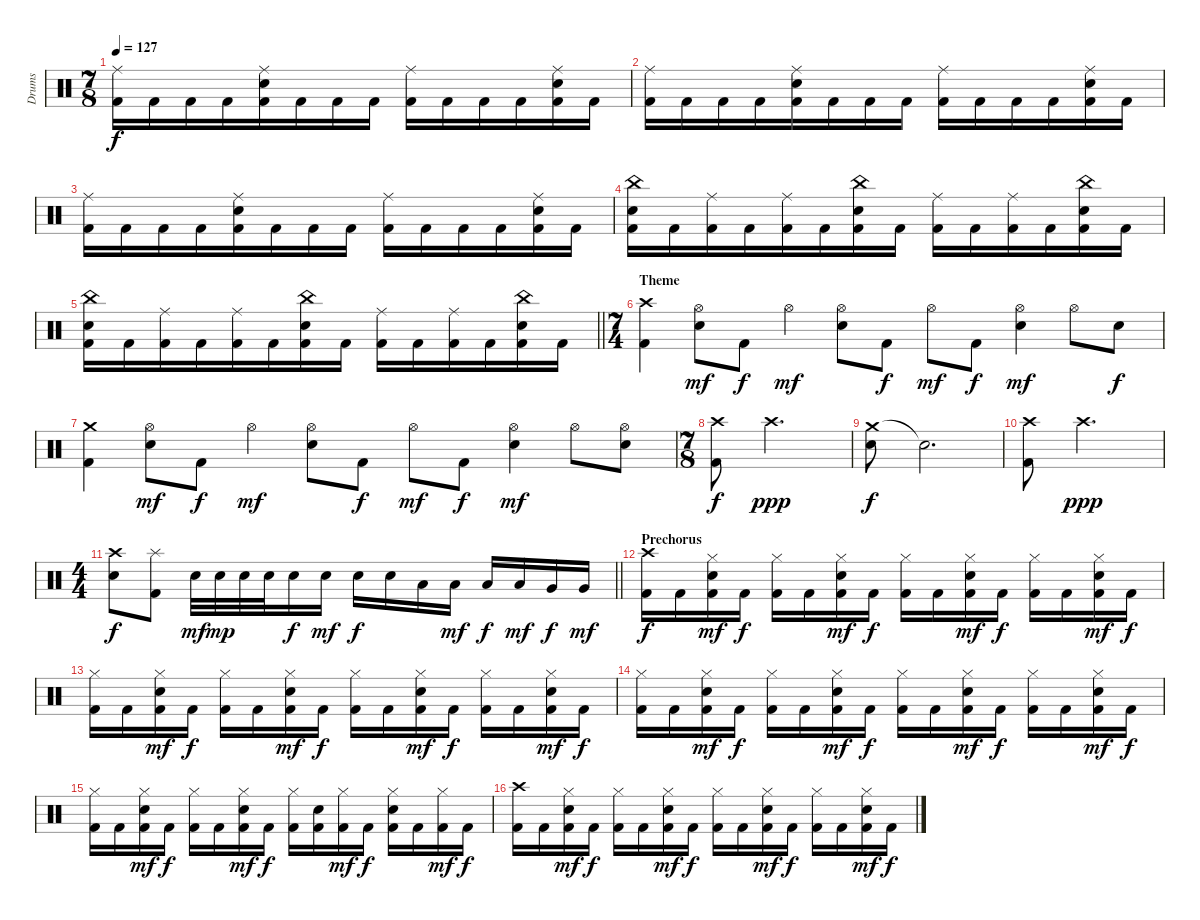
\track ("Drums" "Drums") {instrument percussion}
\staff {score}
\articulation defaults
\ts (7 8)
\tempo 127
\clef neutral
\ks c
("Kick (hit) 2" "Ride (middle)").16{dy f} "Kick (hit) 2".16 "Kick (hit) 2".16 "Kick (hit) 2".16 ("Kick (hit) 2" "Ride (middle)" "Electric Snare (hit)").16 "Kick (hit) 2".16 "Kick (hit) 2".16 "Kick (hit) 2".16 ("Kick (hit) 2" "Ride (middle)").16 "Kick (hit) 2".16 "Kick (hit) 2".16 "Kick (hit) 2".16 ("Kick (hit) 2" "Ride (middle)" "Electric Snare (hit)").16 "Kick (hit) 2".16 |
("Kick (hit) 2" "Ride (middle)").16 "Kick (hit) 2".16 "Kick (hit) 2".16 "Kick (hit) 2".16 ("Kick (hit) 2" "Ride (middle)" "Electric Snare (hit)").16 "Kick (hit) 2".16 "Kick (hit) 2".16 "Kick (hit) 2".16 ("Kick (hit) 2" "Ride (middle)").16 "Kick (hit) 2".16 "Kick (hit) 2".16 "Kick (hit) 2".16 ("Kick (hit) 2" "Ride (middle)" "Electric Snare (hit)").16 "Kick (hit) 2".16 |
("Kick (hit) 2" "Ride (middle)").16 "Kick (hit) 2".16 "Kick (hit) 2".16 "Kick (hit) 2".16 ("Kick (hit) 2" "Ride (middle)" "Electric Snare (hit)").16 "Kick (hit) 2".16 "Kick (hit) 2".16 "Kick (hit) 2".16 ("Kick (hit) 2" "Ride (middle)").16 "Kick (hit) 2".16 "Kick (hit) 2".16 "Kick (hit) 2".16 ("Kick (hit) 2" "Ride (middle)" "Electric Snare (hit)").16 "Kick (hit) 2".16 |
("Kick (hit) 2" "China (hit)" "Electric Snare (hit)").16 "Kick (hit) 2".16 ("Kick (hit) 2" "Ride (middle)").16 "Kick (hit) 2".16 ("Kick (hit) 2" "Ride (middle)").16 "Kick (hit) 2".16 ("Kick (hit) 2" "China (hit)" "Electric Snare (hit)").16 "Kick (hit) 2".16 ("Kick (hit) 2" "Ride (middle)").16 "Kick (hit) 2".16 ("Kick (hit) 2" "Ride (middle)").16 "Kick (hit) 2".16 ("Kick (hit) 2" "China (hit)" "Electric Snare (hit)").16 "Kick (hit) 2".16 |
\barLineRight lightlight
("Kick (hit) 2" "China (hit)" "Electric Snare (hit)").16 "Kick (hit) 2".16 ("Kick (hit) 2" "Ride (middle)").16 "Kick (hit) 2".16 ("Kick (hit) 2" "Ride (middle)").16 "Kick (hit) 2".16 ("Kick (hit) 2" "China (hit)" "Electric Snare (hit)").16 "Kick (hit) 2".16 ("Kick (hit) 2" "Ride (middle)").16 "Kick (hit) 2".16 ("Kick (hit) 2" "Ride (middle)").16 "Kick (hit) 2".16 ("Kick (hit) 2" "China (hit)" "Electric Snare (hit)").16 "Kick (hit) 2".16 |
\ts (7 4)
\section ("" "Theme")
("Kick (hit) 2" "Crash high (hit)").4 ("Hi-Hat (open)" "Electric Snare (hit)").8{dy mf} "Kick (hit) 2".8{dy f} "Hi-Hat (open)".4{dy mf} ("Hi-Hat (open)" "Electric Snare (hit)").8 "Kick (hit) 2".8{dy f} "Hi-Hat (open)".8{dy mf} "Kick (hit) 2".8{dy f} ("Hi-Hat (open)" "Electric Snare (hit)").4{dy mf} "Hi-Hat (open)".8 "Electric Snare (hit)".8{dy f} |
("Kick (hit) 2" "Crash medium (hit)").4 ("Hi-Hat (open)" "Electric Snare (hit)").8{dy mf} "Kick (hit) 2".8{dy f} "Hi-Hat (open)".4{dy mf} ("Hi-Hat (open)" "Electric Snare (hit)").8 "Kick (hit) 2".8{dy f} "Hi-Hat (open)".8{dy mf} "Kick (hit) 2".8{dy f} ("Hi-Hat (open)" "Electric Snare (hit)").4{dy mf} "Hi-Hat (open)".8 ("Hi-Hat (open)" "Electric Snare (hit)").8 |
\ts (7 8)
("Kick (hit) 2" "Crash high (hit)").8{dy f} "Crash high (hit)".2{d dy ppp} |
("Crash medium (hit)" "Electric Snare (hit)").8{dy f} "Snare (hit)"{t}.2{d} |
("Kick (hit) 2" "Crash high (hit)").8 "Crash high (hit)".2{d dy ppp} |
\ts (4 4)
\barLineRight lightlight
("Crash high (hit)" "Electric Snare (hit)").8{dy f} ("Kick (hit) 2" "Splash (hit)").8 "Electric Snare (hit)".32{dy mf} "Electric Snare (hit)".32{dy mp} "Electric Snare (hit)".32 "Electric Snare (hit)".32 "Electric Snare (hit)".16{dy f} "Electric Snare (hit)".16{dy mf} "Electric Snare (hit)".16{dy f} "Electric Snare (hit)".16 "Low Tom (hit)".16 "Low Tom (hit)".16{dy mf} "Low Tom (hit)".16{dy f} "Low Tom (hit)".16{dy mf} "Very Low Tom (hit)".16{dy f} "Very Low Tom (hit)".16{dy mf} |
\section ("" "Prechorus")
("Kick (hit) 2" "Crash high (hit)").16{dy f} "Kick (hit) 2".16 ("Kick (hit) 2" "Hi-Hat (closed)" "Electric Snare (hit)").16{dy mf} "Kick (hit) 2".16{dy f} ("Kick (hit) 2" "Hi-Hat (closed)").16 "Kick (hit) 2".16 ("Kick (hit) 2" "Hi-Hat (closed)" "Electric Snare (hit)").16{dy mf} "Kick (hit) 2".16{dy f} ("Kick (hit) 2" "Hi-Hat (closed)").16 "Kick (hit) 2".16 ("Kick (hit) 2" "Hi-Hat (closed)" "Electric Snare (hit)").16{dy mf} "Kick (hit) 2".16{dy f} ("Kick (hit) 2" "Hi-Hat (closed)").16 "Kick (hit) 2".16 ("Kick (hit) 2" "Hi-Hat (closed)" "Electric Snare (hit)").16{dy mf} "Kick (hit) 2".16{dy f} |
("Kick (hit) 2" "Hi-Hat (closed)").16 "Kick (hit) 2".16 ("Kick (hit) 2" "Hi-Hat (closed)" "Electric Snare (hit)").16{dy mf} "Kick (hit) 2".16{dy f} ("Kick (hit) 2" "Hi-Hat (closed)").16 "Kick (hit) 2".16 ("Kick (hit) 2" "Hi-Hat (closed)" "Electric Snare (hit)").16{dy mf} "Kick (hit) 2".16{dy f} ("Kick (hit) 2" "Hi-Hat (closed)").16 "Kick (hit) 2".16 ("Kick (hit) 2" "Hi-Hat (closed)" "Electric Snare (hit)").16{dy mf} "Kick (hit) 2".16{dy f} ("Kick (hit) 2" "Hi-Hat (closed)").16 "Kick (hit) 2".16 ("Kick (hit) 2" "Hi-Hat (closed)" "Electric Snare (hit)").16{dy mf} "Kick (hit) 2".16{dy f} |
("Kick (hit) 2" "Hi-Hat (closed)").16 "Kick (hit) 2".16 ("Kick (hit) 2" "Hi-Hat (closed)" "Electric Snare (hit)").16{dy mf} "Kick (hit) 2".16{dy f} ("Kick (hit) 2" "Hi-Hat (closed)").16 "Kick (hit) 2".16 ("Kick (hit) 2" "Hi-Hat (closed)" "Electric Snare (hit)").16{dy mf} "Kick (hit) 2".16{dy f} ("Kick (hit) 2" "Hi-Hat (closed)").16 "Kick (hit) 2".16 ("Kick (hit) 2" "Hi-Hat (closed)" "Electric Snare (hit)").16{dy mf} "Kick (hit) 2".16{dy f} ("Kick (hit) 2" "Hi-Hat (closed)").16 "Kick (hit) 2".16 ("Kick (hit) 2" "Hi-Hat (closed)" "Electric Snare (hit)").16{dy mf} "Kick (hit) 2".16{dy f} |
("Kick (hit) 2" "Hi-Hat (closed)").16 "Kick (hit) 2".16 ("Kick (hit) 2" "Hi-Hat (closed)" "Electric Snare (hit)").16{dy mf} "Kick (hit) 2".16{dy f} ("Kick (hit) 2" "Hi-Hat (closed)").16 "Kick (hit) 2".16 ("Kick (hit) 2" "Hi-Hat (closed)" "Electric Snare (hit)").16{dy mf} "Kick (hit) 2".16{dy f} ("Kick (hit) 2" "Hi-Hat (closed)").16 ("Kick (hit) 2" "Electric Snare (hit)").16 ("Kick (hit) 2" "Hi-Hat (closed)").16{dy mf} "Kick (hit) 2".16{dy f} ("Kick (hit) 2" "Hi-Hat (closed)" "Electric Snare (hit)").16 "Kick (hit) 2".16 ("Kick (hit) 2" "Hi-Hat (closed)").16{dy mf} "Kick (hit) 2".16{dy f} |
("Kick (hit) 2" "Crash high (hit)").16 "Kick (hit) 2".16 ("Kick (hit) 2" "Hi-Hat (closed)" "Electric Snare (hit)").16{dy mf} "Kick (hit) 2".16{dy f} ("Kick (hit) 2" "Hi-Hat (closed)").16 "Kick (hit) 2".16 ("Kick (hit) 2" "Hi-Hat (closed)" "Electric Snare (hit)").16{dy mf} "Kick (hit) 2".16{dy f} ("Kick (hit) 2" "Hi-Hat (closed)").16 "Kick (hit) 2".16 ("Kick (hit) 2" "Hi-Hat (closed)" "Electric Snare (hit)").16{dy mf} "Kick (hit) 2".16{dy f} ("Kick (hit) 2" "Hi-Hat (closed)").16 "Kick (hit) 2".16 ("Kick (hit) 2" "Hi-Hat (closed)" "Electric Snare (hit)").16{dy mf} "Kick (hit) 2".16{dy f}
